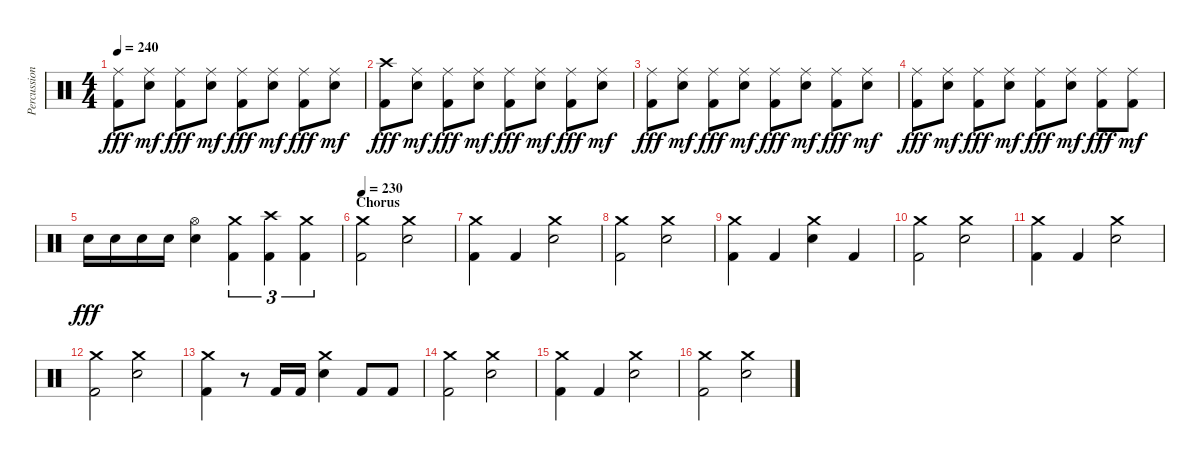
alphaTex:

\track ("Percussion" "Percussion") {instrument percussion}
\staff {score}
\articulation defaults
\ts (4 4)
\tempo 240
\clef neutral
\ks c
("Kick (hit) 2" "Ride (middle)").8{dy fff} ("Electric Snare (hit)" "Ride (middle)").8{dy mf} ("Kick (hit) 2" "Ride (middle)").8{dy fff} ("Electric Snare (hit)" "Ride (middle)").8{dy mf} ("Kick (hit) 2" "Ride (middle)").8{dy fff} ("Electric Snare (hit)" "Ride (middle)").8{dy mf} ("Kick (hit) 2" "Ride (middle)").8{dy fff} ("Electric Snare (hit)" "Ride (middle)").8{dy mf} |
("Kick (hit) 2" "Crash high (hit)").8{dy fff} ("Electric Snare (hit)" "Ride (middle)").8{dy mf} ("Kick (hit) 2" "Ride (middle)").8{dy fff} ("Electric Snare (hit)" "Ride (middle)").8{dy mf} ("Kick (hit) 2" "Ride (middle)").8{dy fff} ("Electric Snare (hit)" "Ride (middle)").8{dy mf} ("Kick (hit) 2" "Ride (middle)").8{dy fff} ("Electric Snare (hit)" "Ride (middle)").8{dy mf} |
("Kick (hit) 2" "Ride (middle)").8{dy fff} ("Electric Snare (hit)" "Ride (middle)").8{dy mf} ("Kick (hit) 2" "Ride (middle)").8{dy fff} ("Electric Snare (hit)" "Ride (middle)").8{dy mf} ("Kick (hit) 2" "Ride (middle)").8{dy fff} ("Electric Snare (hit)" "Ride (middle)").8{dy mf} ("Kick (hit) 2" "Ride (middle)").8{dy fff} ("Electric Snare (hit)" "Ride (middle)").8{dy mf} |
("Kick (hit) 2" "Ride (middle)").8{dy fff} ("Electric Snare (hit)" "Ride (middle)").8{dy mf} ("Kick (hit) 2" "Ride (middle)").8{dy fff} ("Electric Snare (hit)" "Ride (middle)").8{dy mf} ("Kick (hit) 2" "Ride (middle)").8{dy fff} ("Electric Snare (hit)" "Ride (middle)").8{dy mf} ("Kick (hit) 2" "Ride (middle)").8{dy fff} ("Kick (hit) 2" "Ride (middle)").8{dy mf} |
"Electric Snare (hit)".16{dy fff} "Electric Snare (hit)".16 "Electric Snare (hit)".16 "Electric Snare (hit)".16 ("Electric Snare (hit)" "Hi-Hat (open)").4 ("Kick (hit) 2" "Crash medium (hit)").4{tu (3 2)} ("Kick (hit) 2" "Crash high (hit)").4{tu (3 2)} ("Kick (hit) 2" "Crash medium (hit)").4{tu (3 2)} |
\section ("" "Chorus")
\tempo 230
("Kick (hit) 2" "Crash medium (hit)").2 ("Electric Snare (hit)" "Crash medium (hit)").2 |
("Kick (hit) 2" "Crash medium (hit)").4 "Kick (hit) 2".4 ("Electric Snare (hit)" "Crash medium (hit)").2 |
("Kick (hit) 2" "Crash medium (hit)").2 ("Electric Snare (hit)" "Crash medium (hit)").2 |
("Kick (hit) 2" "Crash medium (hit)").4 "Kick (hit) 2".4 ("Electric Snare (hit)" "Crash medium (hit)").4 "Kick (hit) 2".4 |
("Kick (hit) 2" "Crash medium (hit)").2 ("Electric Snare (hit)" "Crash medium (hit)").2 |
("Kick (hit) 2" "Crash medium (hit)").4 "Kick (hit) 2".4 ("Electric Snare (hit)" "Crash medium (hit)").2 |
("Kick (hit) 2" "Crash medium (hit)").2 ("Electric Snare (hit)" "Crash medium (hit)").2 |
("Kick (hit) 2" "Crash medium (hit)").4 r.8 "Kick (hit) 2".16 "Kick (hit) 2".16 ("Electric Snare (hit)" "Crash medium (hit)").4 "Kick (hit) 2".8 "Kick (hit) 2".8 |
("Kick (hit) 2" "Crash medium (hit)").2 ("Electric Snare (hit)" "Crash medium (hit)").2 |
("Kick (hit) 2" "Crash medium (hit)").4 "Kick (hit) 2".4 ("Electric Snare (hit)" "Crash medium (hit)").2 |
("Kick (hit) 2" "Crash medium (hit)").2 ("Electric Snare (hit)" "Crash medium (hit)").2
